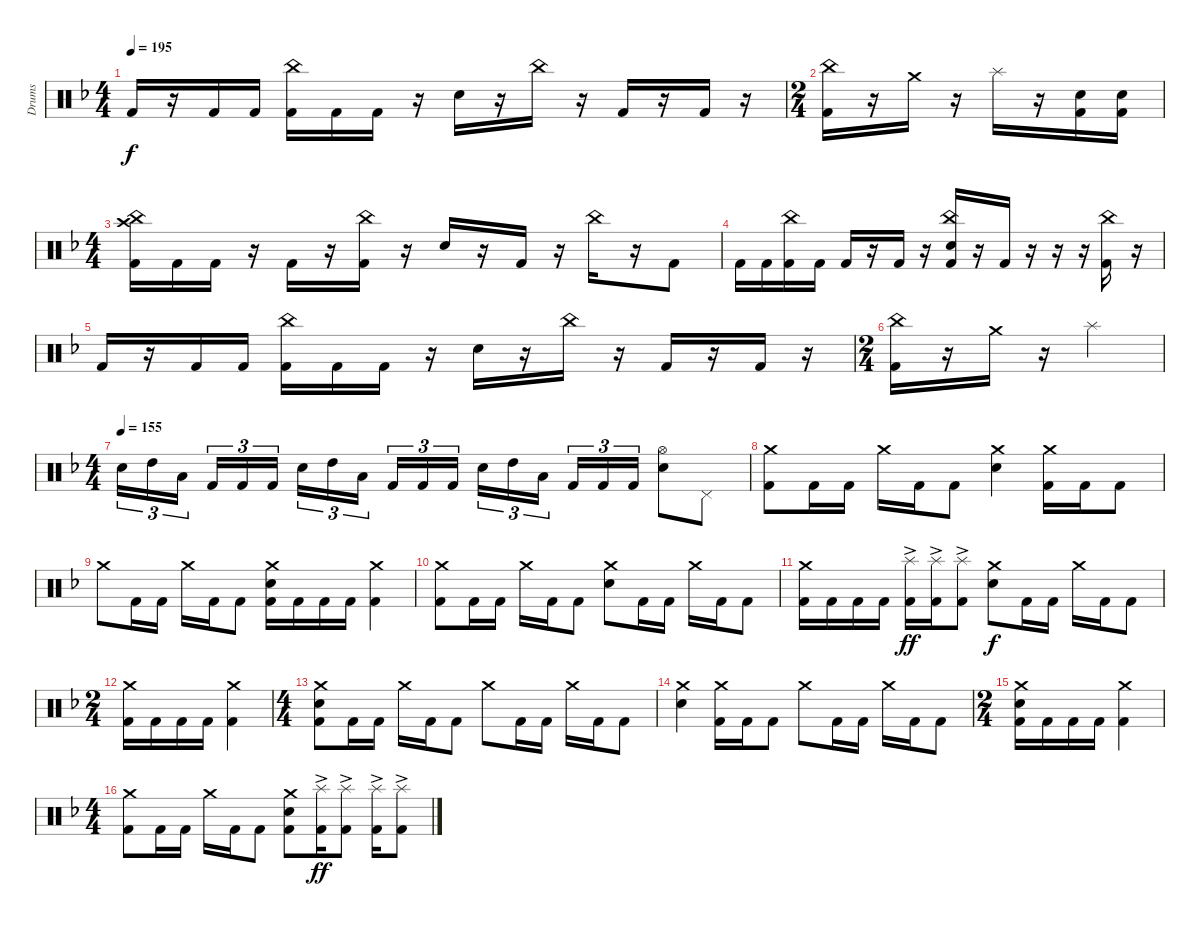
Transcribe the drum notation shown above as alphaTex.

\track ("Drums" "Drums") {instrument percussion}
\staff {score}
\articulation defaults
\ts (4 4)
\tempo 195
\clef neutral
\ks f "Kick (hit) 2".16{dy f}
r.16 "Kick (hit) 2".16 "Kick (hit) 2".16 ("China (hit)" "Kick (hit) 2").16 "Kick (hit) 2".16 "Kick (hit) 2".16 r.16 "Electric Snare (hit)".16 r.16 "China (hit)".16 r.16 "Kick (hit) 2".16 r.16 "Kick (hit) 2".16 r.16 |
\ts (2 4)
("China (hit)" "Kick (hit) 2").16 r.16 "Crash medium (hit)".16 r.16 "Splash (hit)".16 r.16 ("Electric Snare (hit)" "Kick (hit) 2").16 ("Electric Snare (hit)" "Kick (hit) 2").16 |
\ts (4 4)
("Crash high (hit)" "China (hit)" "Kick (hit) 2").16 "Kick (hit) 2".16 "Kick (hit) 2".16 r.16 "Kick (hit) 2".16 r.16 ("China (hit)" "Kick (hit) 2").16 r.16 "Electric Snare (hit)".16 r.16 "Kick (hit) 2".16 r.16 "China (hit)".16 r.16 "Kick (hit) 2".8 |
"Kick (hit) 2".16 "Kick (hit) 2".16 ("China (hit)" "Kick (hit) 2").16 "Kick (hit) 2".16 "Kick (hit) 2".16 r.16 "Kick (hit) 2".16 r.16 ("China (hit)" "Electric Snare (hit)" "Kick (hit) 2").16 r.16 "Kick (hit) 2".16 r.16 r.16 r.16 ("China (hit)" "Kick (hit) 2").16 r.16 |
"Kick (hit) 2".16 r.16 "Kick (hit) 2".16 "Kick (hit) 2".16 ("China (hit)" "Kick (hit) 2").16 "Kick (hit) 2".16 "Kick (hit) 2".16 r.16 "Electric Snare (hit)".16 r.16 "China (hit)".16 r.16 "Kick (hit) 2".16 r.16 "Kick (hit) 2".16 r.16 |
\ts (2 4)
("China (hit)" "Kick (hit) 2").16 r.16 "Crash medium (hit)".16 r.16 "Splash (hit)".4 |
\ts (4 4)
\tempo (155)
"Electric Snare (hit)".16{tu (3 2)} "High Tom (hit)".16{tu (3 2)} "Low Tom (hit)".16{tu (3 2) beam splitsecondary} "Kick (hit) 2".16{tu (3 2)} "Kick (hit) 2".16{tu (3 2)} "Kick (hit) 2".16{tu (3 2)} "Electric Snare (hit)".16{tu (3 2)} "High Tom (hit)".16{tu (3 2)} "Low Tom (hit)".16{tu (3 2) beam splitsecondary} "Kick (hit) 2".16{tu (3 2)} "Kick (hit) 2".16{tu (3 2)} "Kick (hit) 2".16{tu (3 2)} "Electric Snare (hit)".16{tu (3 2)} "High Tom (hit)".16{tu (3 2)} "Low Tom (hit)".16{tu (3 2) beam splitsecondary} "Kick (hit) 2".16{tu (3 2)} "Kick (hit) 2".16{tu (3 2)} "Kick (hit) 2".16{tu (3 2)} ("Hi-Hat (open)" "Electric Snare (hit)").8 "Pedal Hi-Hat (hit)".8 |
("Crash medium (hit)" "Kick (hit) 2").8 "Kick (hit) 2".16 "Kick (hit) 2".16 "Crash medium (hit)".16 "Kick (hit) 2".16 "Kick (hit) 2".8 ("Crash medium (hit)" "Electric Snare (hit)").4 ("Crash medium (hit)" "Kick (hit) 2").16 "Kick (hit) 2".16 "Kick (hit) 2".8 |
"Crash medium (hit)".8 "Kick (hit) 2".16 "Kick (hit) 2".16 "Crash medium (hit)".16 "Kick (hit) 2".16 "Kick (hit) 2".8 ("Crash medium (hit)" "Electric Snare (hit)" "Kick (hit) 2").16 "Kick (hit) 2".16 "Kick (hit) 2".16 "Kick (hit) 2".16 ("Crash medium (hit)" "Kick (hit) 2").4 |
("Crash medium (hit)" "Kick (hit) 2").8 "Kick (hit) 2".16 "Kick (hit) 2".16 "Crash medium (hit)".16 "Kick (hit) 2".16 "Kick (hit) 2".8 ("Crash medium (hit)" "Electric Snare (hit)").8 "Kick (hit) 2".16 "Kick (hit) 2".16 "Crash medium (hit)".16 "Kick (hit) 2".16 "Kick (hit) 2".8 |
("Crash medium (hit)" "Kick (hit) 2").16 "Kick (hit) 2".16 "Kick (hit) 2".16 "Kick (hit) 2".16 ("Splash (hit)"{ac} "Kick (hit) 2").16{dy ff} ("Splash (hit)"{ac} "Kick (hit) 2").16 ("Splash (hit)"{ac} "Kick (hit) 2").8 ("Crash medium (hit)" "Electric Snare (hit)").8{dy f} "Kick (hit) 2".16 "Kick (hit) 2".16 "Crash medium (hit)".16 "Kick (hit) 2".16 "Kick (hit) 2".8 |
\ts (2 4)
("Crash medium (hit)" "Kick (hit) 2").16 "Kick (hit) 2".16 "Kick (hit) 2".16 "Kick (hit) 2".16 ("Crash medium (hit)" "Kick (hit) 2").4 |
\ts (4 4)
("Crash medium (hit)" "Electric Snare (hit)" "Kick (hit) 2").8 "Kick (hit) 2".16 "Kick (hit) 2".16 "Crash medium (hit)".16 "Kick (hit) 2".16 "Kick (hit) 2".8 "Crash medium (hit)".8 "Kick (hit) 2".16 "Kick (hit) 2".16 "Crash medium (hit)".16 "Kick (hit) 2".16 "Kick (hit) 2".8 |
("Crash medium (hit)" "Electric Snare (hit)").4 ("Crash medium (hit)" "Kick (hit) 2").16 "Kick (hit) 2".16 "Kick (hit) 2".8 "Crash medium (hit)".8 "Kick (hit) 2".16 "Kick (hit) 2".16 "Crash medium (hit)".16 "Kick (hit) 2".16 "Kick (hit) 2".8 |
\ts (2 4)
("Crash medium (hit)" "Electric Snare (hit)" "Kick (hit) 2").16 "Kick (hit) 2".16 "Kick (hit) 2".16 "Kick (hit) 2".16 ("Crash medium (hit)" "Kick (hit) 2").4 |
\ts (4 4)
("Crash medium (hit)" "Kick (hit) 2").8 "Kick (hit) 2".16 "Kick (hit) 2".16 "Crash medium (hit)".16 "Kick (hit) 2".16 "Kick (hit) 2".8 ("Crash medium (hit)" "Electric Snare (hit)" "Kick (hit) 2").8 ("Splash (hit)"{ac} "Kick (hit) 2").16{dy ff} ("Splash (hit)"{ac} "Kick (hit) 2").8 ("Splash (hit)"{ac} "Kick (hit) 2").16 ("Splash (hit)"{ac} "Kick (hit) 2").8
